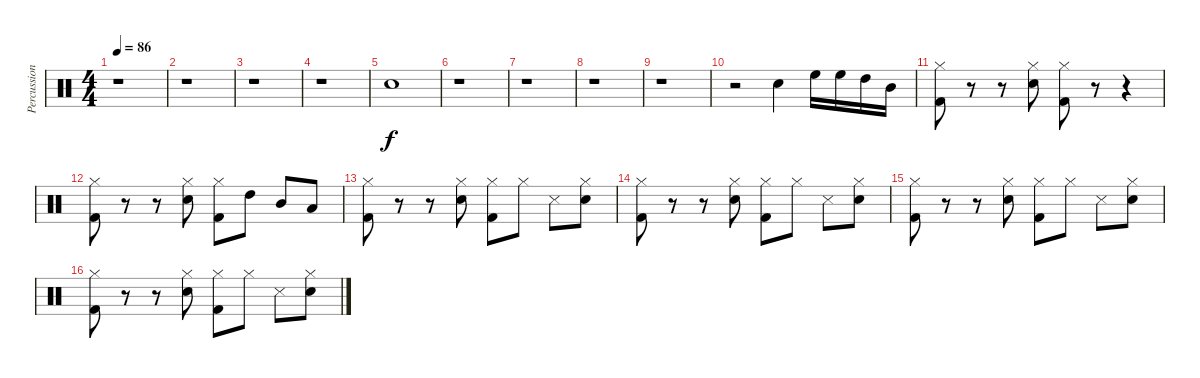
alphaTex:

\track ("Percussions" "Percussion") {instrument percussion}
\staff {score}
\articulation defaults
\ts (4 4)
\tempo 86
\clef neutral
\ks c
r.1{dy f} |
r.1 |
r.1 |
r.1 |
"Snare (hit)".1 |
r.1 |
r.1 |
r.1 |
r.1 |
r.2 "Snare (hit) 2".4 "High Floor Tom (hit)".16 "High Floor Tom (hit)".16 "High Tom (hit)".16 "Mid Tom (hit)".16 |
("Hi-Hat (closed)" "Kick (hit) 2").8 r.8 r.8 ("Hi-Hat (closed)" "Snare (hit) 2").8 ("Hi-Hat (closed)" "Kick (hit) 2").8 r.8 r.4 |
("Hi-Hat (closed)" "Kick (hit) 2").8 r.8 r.8 ("Hi-Hat (closed)" "Snare (hit) 2").8 ("Hi-Hat (closed)" "Kick (hit) 2").8 "High Tom (hit)".8 "Mid Tom (hit)".8 "Low Tom (hit)".8 |
("Hi-Hat (closed)" "Kick (hit) 2").8 r.8 r.8 ("Hi-Hat (closed)" "Snare (hit) 2").8 ("Hi-Hat (closed)" "Kick (hit) 2").8 "Hi-Hat (closed)".8 "Snare (side stick) 3".8 ("Hi-Hat (closed)" "Snare (hit) 2").8 |
("Hi-Hat (closed)" "Kick (hit) 2").8 r.8 r.8 ("Hi-Hat (closed)" "Snare (hit) 2").8 ("Hi-Hat (closed)" "Kick (hit) 2").8 "Hi-Hat (closed)".8 "Snare (side stick) 3".8 ("Hi-Hat (closed)" "Snare (hit) 2").8 |
("Hi-Hat (closed)" "Kick (hit) 2").8 r.8 r.8 ("Hi-Hat (closed)" "Snare (hit) 2").8 ("Hi-Hat (closed)" "Kick (hit) 2").8 "Hi-Hat (closed)".8 "Snare (side stick) 3".8 ("Hi-Hat (closed)" "Snare (hit) 2").8 |
("Hi-Hat (closed)" "Kick (hit) 2").8 r.8 r.8 ("Hi-Hat (closed)" "Snare (hit) 2").8 ("Hi-Hat (closed)" "Kick (hit) 2").8 "Hi-Hat (closed)".8 "Snare (side stick) 3".8 ("Hi-Hat (closed)" "Snare (hit) 2").8
